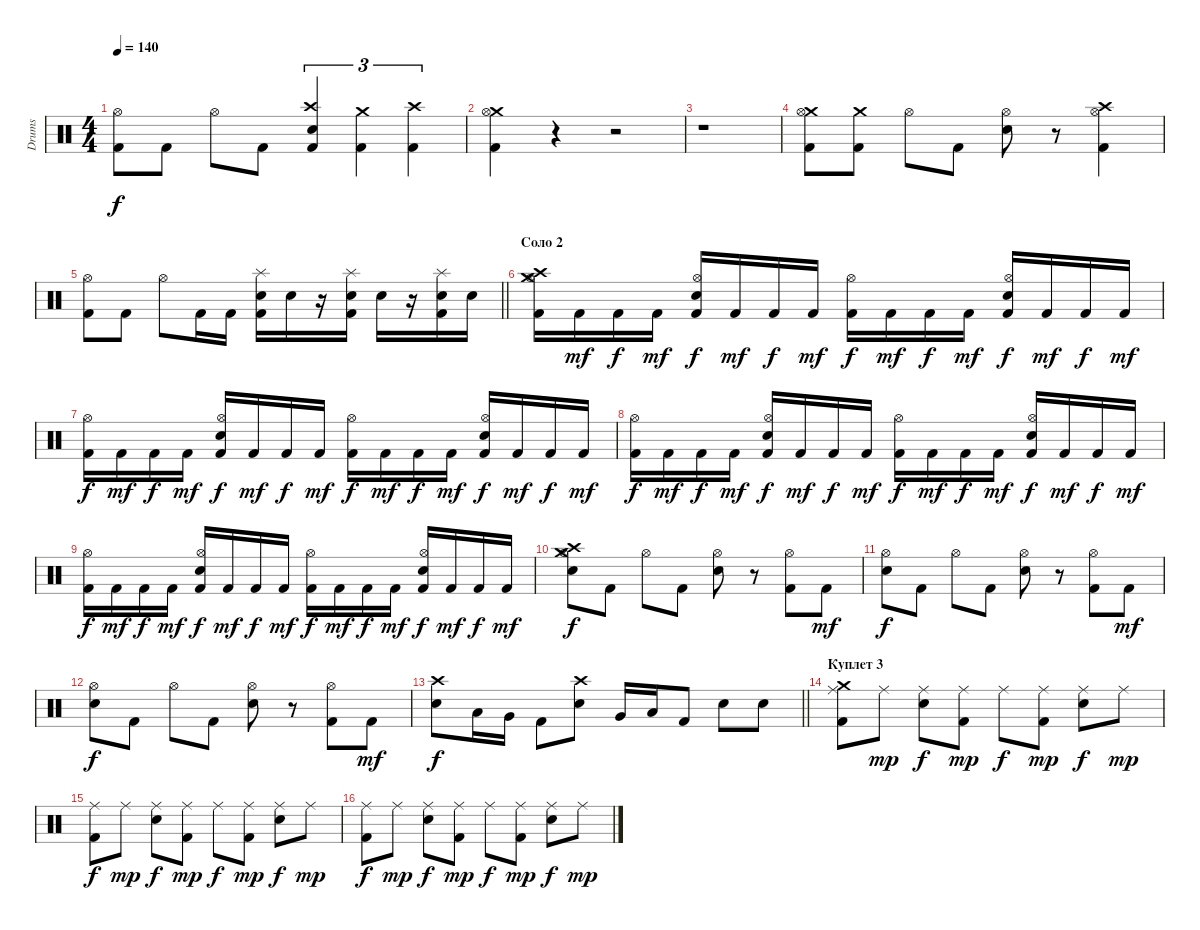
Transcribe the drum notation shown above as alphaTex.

\track ("Drums" "Drums") {instrument percussion}
\staff {score}
\articulation defaults
\ts (4 4)
\tempo 140
\clef neutral
\ks c
("Kick (hit) 2" "Hi-Hat (open)").8{dy f} "Kick (hit) 2".8 "Hi-Hat (open)".8 "Kick (hit) 2".8 ("Crash high (hit)" "Electric Snare (hit)" "Kick (hit) 2").4{tu (3 2)} ("Crash medium (hit)" "Kick (hit) 2").4{tu (3 2)} ("Crash high (hit)" "Kick (hit) 2").4{tu (3 2)} |
("Crash medium (hit)" "Kick (hit) 2" "Hi-Hat (open)").4 r.4 r.2 |
r.1 |
("Crash medium (hit)" "Kick (hit) 2" "Hi-Hat (open)").8 ("Crash medium (hit)" "Kick (hit) 2").8 "Hi-Hat (open)".8 "Kick (hit) 2".8 ("Electric Snare (hit)" "Hi-Hat (open)").8 r.8 ("Crash high (hit)" "Kick (hit) 2" "Hi-Hat (open)").4 |
\barLineRight lightlight
("Kick (hit) 2" "Hi-Hat (open)").8 "Kick (hit) 2".8 "Hi-Hat (open)".8 "Kick (hit) 2".16 "Kick (hit) 2".16 ("Splash (hit)" "Electric Snare (hit)" "Kick (hit) 2").16 "Electric Snare (hit)".16 r.16 ("Splash (hit)" "Electric Snare (hit)" "Kick (hit) 2").16 "Electric Snare (hit)".16 r.16 ("Splash (hit)" "Electric Snare (hit)" "Kick (hit) 2").16 "Electric Snare (hit)".16 |
\section ("" "Соло 2")
("Hi-Hat (open)" "Crash medium (hit)" "Crash high (hit)" "Kick (hit) 2").16 "Kick (hit) 2".16{dy mf} "Kick (hit) 2".16{dy f} "Kick (hit) 2".16{dy mf} ("Hi-Hat (open)" "Electric Snare (hit)" "Kick (hit) 2").16{dy f} "Kick (hit) 2".16{dy mf} "Kick (hit) 2".16{dy f} "Kick (hit) 2".16{dy mf} ("Hi-Hat (open)" "Kick (hit) 2").16{dy f} "Kick (hit) 2".16{dy mf} "Kick (hit) 2".16{dy f} "Kick (hit) 2".16{dy mf} ("Hi-Hat (open)" "Electric Snare (hit)" "Kick (hit) 2").16{dy f} "Kick (hit) 2".16{dy mf} "Kick (hit) 2".16{dy f} "Kick (hit) 2".16{dy mf} |
("Hi-Hat (open)" "Kick (hit) 2").16{dy f} "Kick (hit) 2".16{dy mf} "Kick (hit) 2".16{dy f} "Kick (hit) 2".16{dy mf} ("Hi-Hat (open)" "Electric Snare (hit)" "Kick (hit) 2").16{dy f} "Kick (hit) 2".16{dy mf} "Kick (hit) 2".16{dy f} "Kick (hit) 2".16{dy mf} ("Hi-Hat (open)" "Kick (hit) 2").16{dy f} "Kick (hit) 2".16{dy mf} "Kick (hit) 2".16{dy f} "Kick (hit) 2".16{dy mf} ("Hi-Hat (open)" "Electric Snare (hit)" "Kick (hit) 2").16{dy f} "Kick (hit) 2".16{dy mf} "Kick (hit) 2".16{dy f} "Kick (hit) 2".16{dy mf} |
("Hi-Hat (open)" "Kick (hit) 2").16{dy f} "Kick (hit) 2".16{dy mf} "Kick (hit) 2".16{dy f} "Kick (hit) 2".16{dy mf} ("Hi-Hat (open)" "Electric Snare (hit)" "Kick (hit) 2").16{dy f} "Kick (hit) 2".16{dy mf} "Kick (hit) 2".16{dy f} "Kick (hit) 2".16{dy mf} ("Hi-Hat (open)" "Kick (hit) 2").16{dy f} "Kick (hit) 2".16{dy mf} "Kick (hit) 2".16{dy f} "Kick (hit) 2".16{dy mf} ("Hi-Hat (open)" "Electric Snare (hit)" "Kick (hit) 2").16{dy f} "Kick (hit) 2".16{dy mf} "Kick (hit) 2".16{dy f} "Kick (hit) 2".16{dy mf} |
("Hi-Hat (open)" "Kick (hit) 2").16{dy f} "Kick (hit) 2".16{dy mf} "Kick (hit) 2".16{dy f} "Kick (hit) 2".16{dy mf} ("Hi-Hat (open)" "Electric Snare (hit)" "Kick (hit) 2").16{dy f} "Kick (hit) 2".16{dy mf} "Kick (hit) 2".16{dy f} "Kick (hit) 2".16{dy mf} ("Hi-Hat (open)" "Kick (hit) 2").16{dy f} "Kick (hit) 2".16{dy mf} "Kick (hit) 2".16{dy f} "Kick (hit) 2".16{dy mf} ("Hi-Hat (open)" "Electric Snare (hit)" "Kick (hit) 2").16{dy f} "Kick (hit) 2".16{dy mf} "Kick (hit) 2".16{dy f} "Kick (hit) 2".16{dy mf} |
("Hi-Hat (open)" "Electric Snare (hit)" "Crash high (hit)" "Crash medium (hit)").8{dy f} "Kick (hit) 2".8 "Hi-Hat (open)".8 "Kick (hit) 2".8 ("Hi-Hat (open)" "Electric Snare (hit)").8 r.8 ("Hi-Hat (open)" "Kick (hit) 2").8 "Kick (hit) 2".8{dy mf} |
("Hi-Hat (open)" "Electric Snare (hit)").8{dy f} "Kick (hit) 2".8 "Hi-Hat (open)".8 "Kick (hit) 2".8 ("Hi-Hat (open)" "Electric Snare (hit)").8 r.8 ("Hi-Hat (open)" "Kick (hit) 2").8 "Kick (hit) 2".8{dy mf} |
("Hi-Hat (open)" "Electric Snare (hit)").8{dy f} "Kick (hit) 2".8 "Hi-Hat (open)".8 "Kick (hit) 2".8 ("Hi-Hat (open)" "Electric Snare (hit)").8 r.8 ("Hi-Hat (open)" "Kick (hit) 2").8 "Kick (hit) 2".8{dy mf} |
\barLineRight lightlight
("Crash high (hit)" "Electric Snare (hit)").8{dy f} "Low Tom (hit)".16 "Very Low Tom (hit)".16 "Kick (hit) 2".8 ("Crash high (hit)" "Electric Snare (hit)").8 "Very Low Tom (hit)".16 "Low Floor Tom (hit)".16 "Kick (hit) 2".8 "Electric Snare (hit)".8 "Electric Snare (hit)".8 |
\section ("" "Куплет 3")
("Crash medium (hit)" "Kick (hit) 2" "Ride (middle)").8 "Ride (middle)".8{dy mp} ("Electric Snare (hit)" "Ride (middle)").8{dy f} ("Kick (hit) 2" "Ride (middle)").8{dy mp} "Ride (middle)".8{dy f} ("Kick (hit) 2" "Ride (middle)").8{dy mp} ("Electric Snare (hit)" "Ride (middle)").8{dy f} "Ride (middle)".8{dy mp} |
("Kick (hit) 2" "Ride (middle)").8{dy f} "Ride (middle)".8{dy mp} ("Electric Snare (hit)" "Ride (middle)").8{dy f} ("Kick (hit) 2" "Ride (middle)").8{dy mp} "Ride (middle)".8{dy f} ("Kick (hit) 2" "Ride (middle)").8{dy mp} ("Electric Snare (hit)" "Ride (middle)").8{dy f} "Ride (middle)".8{dy mp} |
("Kick (hit) 2" "Ride (middle)").8{dy f} "Ride (middle)".8{dy mp} ("Electric Snare (hit)" "Ride (middle)").8{dy f} ("Kick (hit) 2" "Ride (middle)").8{dy mp} "Ride (middle)".8{dy f} ("Kick (hit) 2" "Ride (middle)").8{dy mp} ("Electric Snare (hit)" "Ride (middle)").8{dy f} "Ride (middle)".8{dy mp}
